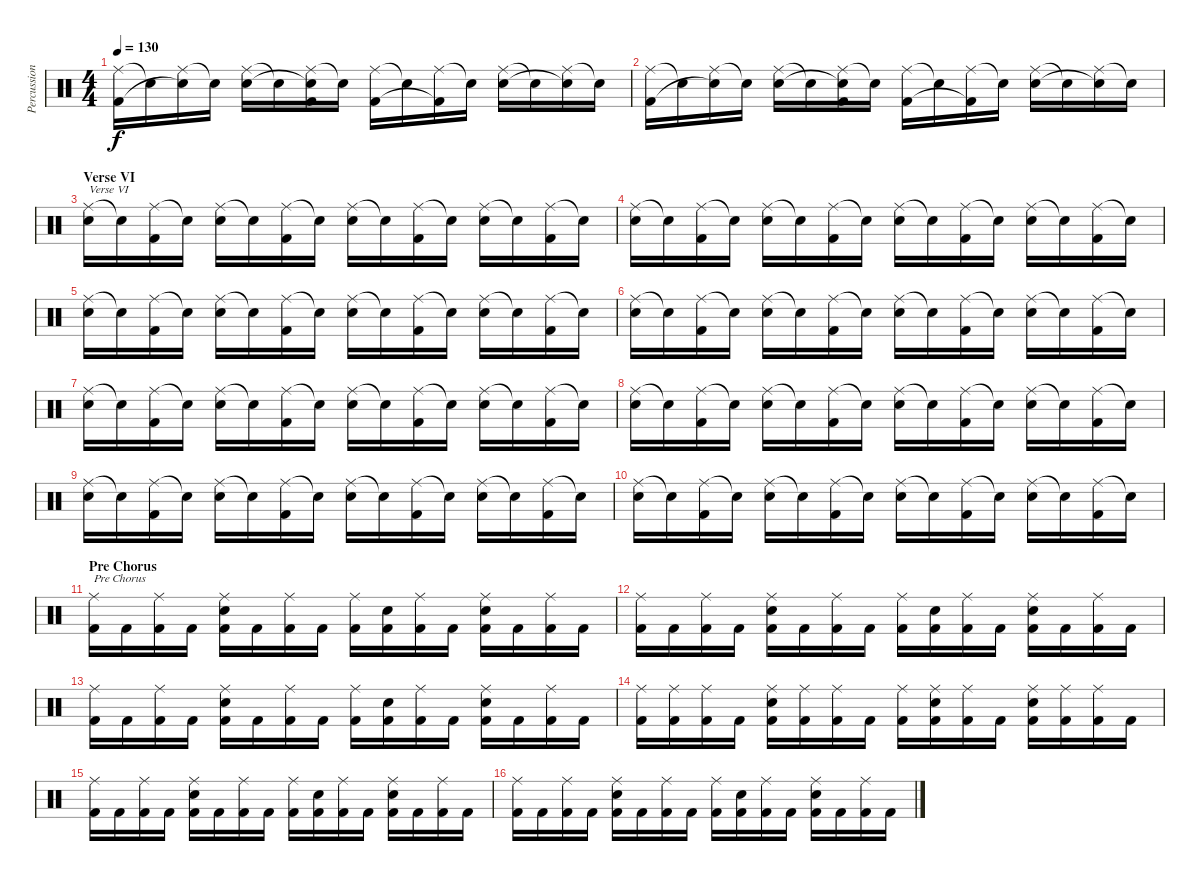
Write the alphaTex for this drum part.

\track ("Percussion" "Percussion") {instrument percussion}
\staff {score}
\articulation defaults
\ts (4 4)
\tempo 130
\clef neutral
\ks c
("Ride (middle)" "Kick (hit) 2").16{dy f} "Snare (hit)"{t}.16 ("Ride (middle)" "Snare (hit)"{t}).16 "Snare (hit)"{t}.16 ("Ride (middle)" "Electric Snare (hit)").16 "Snare (hit)"{t}.16 ("Ride (middle)" "Snare (hit)"{t} "Kick (hit) 2").16 "Snare (hit)"{t}.16 ("Ride (middle)" "Kick (hit) 2").16 "Snare (hit)"{t}.16 ("Ride (middle)" "Kick (hit) 2"{t}).16 "Snare (hit)"{t}.16 ("Ride (middle)" "Electric Snare (hit)").16 "Snare (hit)"{t}.16 ("Ride (middle)" "Snare (hit)"{t}).16 "Snare (hit)"{t}.16 |
("Ride (middle)" "Kick (hit) 2").16 "Snare (hit)"{t}.16 ("Ride (middle)" "Snare (hit)"{t}).16 "Snare (hit)"{t}.16 ("Ride (middle)" "Electric Snare (hit)").16 "Snare (hit)"{t}.16 ("Ride (middle)" "Snare (hit)"{t} "Kick (hit) 2").16 "Snare (hit)"{t}.16 ("Ride (middle)" "Kick (hit) 2").16 "Snare (hit)"{t}.16 ("Ride (middle)" "Kick (hit) 2"{t}).16 "Snare (hit)"{t}.16 ("Ride (middle)" "Electric Snare (hit)").16 "Snare (hit)"{t}.16 ("Ride (middle)" "Snare (hit)"{t}).16 "Snare (hit)"{t}.16 |
\section ("" "Verse VI")
("Ride (middle)" "Electric Snare (hit)").16{txt "Verse VI"} "Snare (hit)"{t}.16 ("Ride (middle)" "Kick (hit) 2").16 "Snare (hit)"{t}.16 ("Ride (middle)" "Electric Snare (hit)").16 "Snare (hit)"{t}.16 ("Ride (middle)" "Kick (hit) 2").16 "Snare (hit)"{t}.16 ("Ride (middle)" "Electric Snare (hit)").16 "Snare (hit)"{t}.16 ("Ride (middle)" "Kick (hit) 2").16 "Snare (hit)"{t}.16 ("Ride (middle)" "Electric Snare (hit)").16 "Snare (hit)"{t}.16 ("Ride (middle)" "Kick (hit) 2").16 "Snare (hit)"{t}.16 |
("Ride (middle)" "Electric Snare (hit)").16 "Snare (hit)"{t}.16 ("Ride (middle)" "Kick (hit) 2").16 "Snare (hit)"{t}.16 ("Ride (middle)" "Electric Snare (hit)").16 "Snare (hit)"{t}.16 ("Ride (middle)" "Kick (hit) 2").16 "Snare (hit)"{t}.16 ("Ride (middle)" "Electric Snare (hit)").16 "Snare (hit)"{t}.16 ("Ride (middle)" "Kick (hit) 2").16 "Snare (hit)"{t}.16 ("Ride (middle)" "Electric Snare (hit)").16 "Snare (hit)"{t}.16 ("Ride (middle)" "Kick (hit) 2").16 "Snare (hit)"{t}.16 |
("Ride (middle)" "Electric Snare (hit)").16 "Snare (hit)"{t}.16 ("Ride (middle)" "Kick (hit) 2").16 "Snare (hit)"{t}.16 ("Ride (middle)" "Electric Snare (hit)").16 "Snare (hit)"{t}.16 ("Ride (middle)" "Kick (hit) 2").16 "Snare (hit)"{t}.16 ("Ride (middle)" "Electric Snare (hit)").16 "Snare (hit)"{t}.16 ("Ride (middle)" "Kick (hit) 2").16 "Snare (hit)"{t}.16 ("Ride (middle)" "Electric Snare (hit)").16 "Snare (hit)"{t}.16 ("Ride (middle)" "Kick (hit) 2").16 "Snare (hit)"{t}.16 |
("Ride (middle)" "Electric Snare (hit)").16 "Snare (hit)"{t}.16 ("Ride (middle)" "Kick (hit) 2").16 "Snare (hit)"{t}.16 ("Ride (middle)" "Electric Snare (hit)").16 "Snare (hit)"{t}.16 ("Ride (middle)" "Kick (hit) 2").16 "Snare (hit)"{t}.16 ("Ride (middle)" "Electric Snare (hit)").16 "Snare (hit)"{t}.16 ("Ride (middle)" "Kick (hit) 2").16 "Snare (hit)"{t}.16 ("Ride (middle)" "Electric Snare (hit)").16 "Snare (hit)"{t}.16 ("Ride (middle)" "Kick (hit) 2").16 "Snare (hit)"{t}.16 |
("Ride (middle)" "Electric Snare (hit)").16 "Snare (hit)"{t}.16 ("Ride (middle)" "Kick (hit) 2").16 "Snare (hit)"{t}.16 ("Ride (middle)" "Electric Snare (hit)").16 "Snare (hit)"{t}.16 ("Ride (middle)" "Kick (hit) 2").16 "Snare (hit)"{t}.16 ("Ride (middle)" "Electric Snare (hit)").16 "Snare (hit)"{t}.16 ("Ride (middle)" "Kick (hit) 2").16 "Snare (hit)"{t}.16 ("Ride (middle)" "Electric Snare (hit)").16 "Snare (hit)"{t}.16 ("Ride (middle)" "Kick (hit) 2").16 "Snare (hit)"{t}.16 |
("Ride (middle)" "Electric Snare (hit)").16 "Snare (hit)"{t}.16 ("Ride (middle)" "Kick (hit) 2").16 "Snare (hit)"{t}.16 ("Ride (middle)" "Electric Snare (hit)").16 "Snare (hit)"{t}.16 ("Ride (middle)" "Kick (hit) 2").16 "Snare (hit)"{t}.16 ("Ride (middle)" "Electric Snare (hit)").16 "Snare (hit)"{t}.16 ("Ride (middle)" "Kick (hit) 2").16 "Snare (hit)"{t}.16 ("Ride (middle)" "Electric Snare (hit)").16 "Snare (hit)"{t}.16 ("Ride (middle)" "Kick (hit) 2").16 "Snare (hit)"{t}.16 |
("Ride (middle)" "Electric Snare (hit)").16 "Snare (hit)"{t}.16 ("Ride (middle)" "Kick (hit) 2").16 "Snare (hit)"{t}.16 ("Ride (middle)" "Electric Snare (hit)").16 "Snare (hit)"{t}.16 ("Ride (middle)" "Kick (hit) 2").16 "Snare (hit)"{t}.16 ("Ride (middle)" "Electric Snare (hit)").16 "Snare (hit)"{t}.16 ("Ride (middle)" "Kick (hit) 2").16 "Snare (hit)"{t}.16 ("Ride (middle)" "Electric Snare (hit)").16 "Snare (hit)"{t}.16 ("Ride (middle)" "Kick (hit) 2").16 "Snare (hit)"{t}.16 |
("Ride (middle)" "Electric Snare (hit)").16 "Snare (hit)"{t}.16 ("Ride (middle)" "Kick (hit) 2").16 "Snare (hit)"{t}.16 ("Ride (middle)" "Electric Snare (hit)").16 "Snare (hit)"{t}.16 ("Ride (middle)" "Kick (hit) 2").16 "Snare (hit)"{t}.16 ("Ride (middle)" "Electric Snare (hit)").16 "Snare (hit)"{t}.16 ("Ride (middle)" "Kick (hit) 2").16 "Snare (hit)"{t}.16 ("Ride (middle)" "Electric Snare (hit)").16 "Snare (hit)"{t}.16 ("Ride (middle)" "Kick (hit) 2").16 "Snare (hit)"{t}.16 |
\section ("" "Pre Chorus")
("Ride (middle)" "Kick (hit) 2").16{txt "Pre Chorus"} "Kick (hit) 2".16 ("Ride (middle)" "Kick (hit) 2").16 "Kick (hit) 2".16 ("Ride (middle)" "Electric Snare (hit)" "Kick (hit) 2").16 "Kick (hit) 2".16 ("Ride (middle)" "Kick (hit) 2").16 "Kick (hit) 2".16 ("Ride (middle)" "Kick (hit) 2").16 ("Electric Snare (hit)" "Kick (hit) 2").16 ("Ride (middle)" "Kick (hit) 2").16 "Kick (hit) 2".16 ("Ride (middle)" "Electric Snare (hit)" "Kick (hit) 2").16 "Kick (hit) 2".16 ("Ride (middle)" "Kick (hit) 2").16 "Kick (hit) 2".16 |
("Ride (middle)" "Kick (hit) 2").16 "Kick (hit) 2".16 ("Ride (middle)" "Kick (hit) 2").16 "Kick (hit) 2".16 ("Ride (middle)" "Electric Snare (hit)" "Kick (hit) 2").16 "Kick (hit) 2".16 ("Ride (middle)" "Kick (hit) 2").16 "Kick (hit) 2".16 ("Ride (middle)" "Kick (hit) 2").16 ("Electric Snare (hit)" "Kick (hit) 2").16 ("Ride (middle)" "Kick (hit) 2").16 "Kick (hit) 2".16 ("Ride (middle)" "Electric Snare (hit)" "Kick (hit) 2").16 "Kick (hit) 2".16 ("Ride (middle)" "Kick (hit) 2").16 "Kick (hit) 2".16 |
("Ride (middle)" "Kick (hit) 2").16 "Kick (hit) 2".16 ("Ride (middle)" "Kick (hit) 2").16 "Kick (hit) 2".16 ("Ride (middle)" "Electric Snare (hit)" "Kick (hit) 2").16 "Kick (hit) 2".16 ("Ride (middle)" "Kick (hit) 2").16 "Kick (hit) 2".16 ("Ride (middle)" "Kick (hit) 2").16 ("Electric Snare (hit)" "Kick (hit) 2").16 ("Ride (middle)" "Kick (hit) 2").16 "Kick (hit) 2".16 ("Ride (middle)" "Electric Snare (hit)" "Kick (hit) 2").16 "Kick (hit) 2".16 ("Ride (middle)" "Kick (hit) 2").16 "Kick (hit) 2".16 |
("Ride (middle)" "Kick (hit) 2").16 ("Ride (middle)" "Kick (hit) 2").16 ("Ride (middle)" "Kick (hit) 2").16 "Kick (hit) 2".16 ("Ride (middle)" "Electric Snare (hit)" "Kick (hit) 2").16 ("Ride (middle)" "Kick (hit) 2").16 ("Ride (middle)" "Kick (hit) 2").16 "Kick (hit) 2".16 ("Ride (middle)" "Kick (hit) 2").16 ("Ride (middle)" "Electric Snare (hit)" "Kick (hit) 2").16 ("Ride (middle)" "Kick (hit) 2").16 "Kick (hit) 2".16 ("Ride (middle)" "Electric Snare (hit)" "Kick (hit) 2").16 ("Ride (middle)" "Kick (hit) 2").16 ("Ride (middle)" "Kick (hit) 2").16 "Kick (hit) 2".16 |
("Ride (middle)" "Kick (hit) 2").16 "Kick (hit) 2".16 ("Ride (middle)" "Kick (hit) 2").16 "Kick (hit) 2".16 ("Ride (middle)" "Electric Snare (hit)" "Kick (hit) 2").16 "Kick (hit) 2".16 ("Ride (middle)" "Kick (hit) 2").16 "Kick (hit) 2".16 ("Ride (middle)" "Kick (hit) 2").16 ("Electric Snare (hit)" "Kick (hit) 2").16 ("Ride (middle)" "Kick (hit) 2").16 "Kick (hit) 2".16 ("Ride (middle)" "Electric Snare (hit)" "Kick (hit) 2").16 "Kick (hit) 2".16 ("Ride (middle)" "Kick (hit) 2").16 "Kick (hit) 2".16 |
("Ride (middle)" "Kick (hit) 2").16 "Kick (hit) 2".16 ("Ride (middle)" "Kick (hit) 2").16 "Kick (hit) 2".16 ("Ride (middle)" "Electric Snare (hit)" "Kick (hit) 2").16 "Kick (hit) 2".16 ("Ride (middle)" "Kick (hit) 2").16 "Kick (hit) 2".16 ("Ride (middle)" "Kick (hit) 2").16 ("Electric Snare (hit)" "Kick (hit) 2").16 ("Ride (middle)" "Kick (hit) 2").16 "Kick (hit) 2".16 ("Ride (middle)" "Electric Snare (hit)" "Kick (hit) 2").16 "Kick (hit) 2".16 ("Ride (middle)" "Kick (hit) 2").16 "Kick (hit) 2".16
